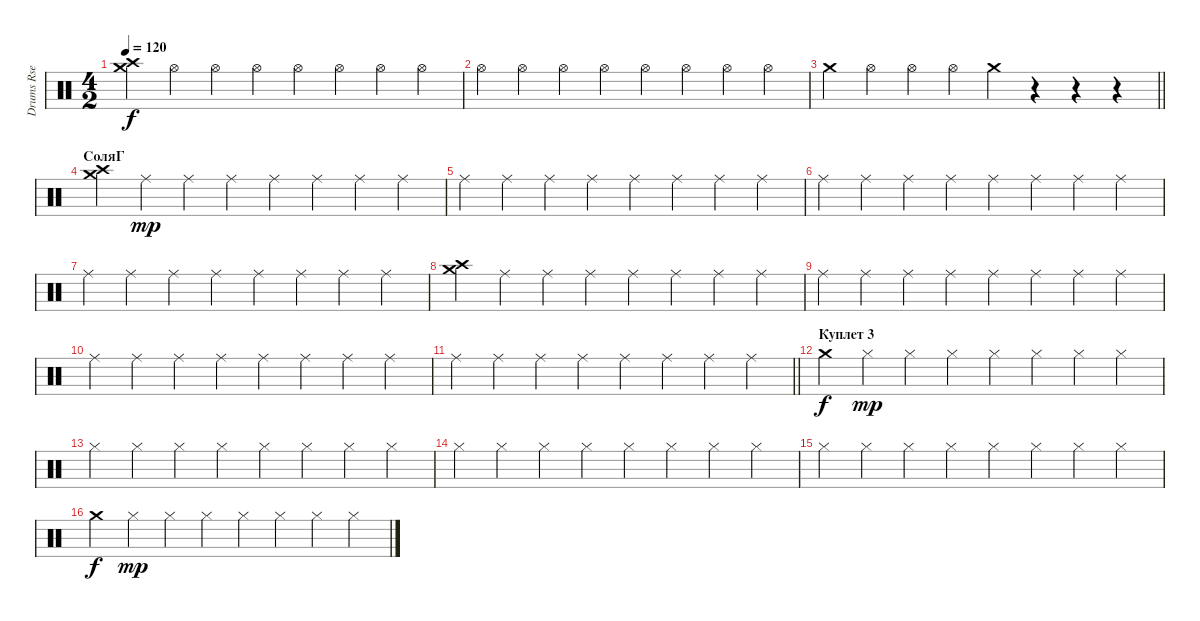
\track ("Drums Rse" "Drums Rse") {instrument percussion}
\staff {score}
\articulation defaults
\ts (4 2)
\tempo 120
\clef neutral
\ks c
("Crash medium (hit)" "Crash high (hit)").4{dy f} "Hi-Hat (open)".4 "Hi-Hat (open)".4 "Hi-Hat (open)".4 "Hi-Hat (open)".4 "Hi-Hat (open)".4 "Hi-Hat (open)".4 "Hi-Hat (open)".4 |
"Hi-Hat (open)".4 "Hi-Hat (open)".4 "Hi-Hat (open)".4 "Hi-Hat (open)".4 "Hi-Hat (open)".4 "Hi-Hat (open)".4 "Hi-Hat (open)".4 "Hi-Hat (open)".4 |
\barLineRight lightlight "Crash medium (hit)".4 "Hi-Hat (open)".4 "Hi-Hat (open)".4 "Hi-Hat (open)".4 "Crash medium (hit)".4
r.4 r.4 r.4 |
\section ("" "СоляГ")
("Crash medium (hit)" "Crash high (hit)").4 "Ride (middle)".4{dy mp} "Ride (middle)".4 "Ride (middle)".4 "Ride (middle)".4 "Ride (middle)".4 "Ride (middle)".4 "Ride (middle)".4 |
"Ride (middle)".4 "Ride (middle)".4 "Ride (middle)".4 "Ride (middle)".4 "Ride (middle)".4 "Ride (middle)".4 "Ride (middle)".4 "Ride (middle)".4 |
"Ride (middle)".4 "Ride (middle)".4 "Ride (middle)".4 "Ride (middle)".4 "Ride (middle)".4 "Ride (middle)".4 "Ride (middle)".4 "Ride (middle)".4 |
"Ride (middle)".4 "Ride (middle)".4 "Ride (middle)".4 "Ride (middle)".4 "Ride (middle)".4 "Ride (middle)".4 "Ride (middle)".4 "Ride (middle)".4 |
("Crash medium (hit)" "Crash high (hit)").4 "Ride (middle)".4 "Ride (middle)".4 "Ride (middle)".4 "Ride (middle)".4 "Ride (middle)".4 "Ride (middle)".4 "Ride (middle)".4 |
"Ride (middle)".4 "Ride (middle)".4 "Ride (middle)".4 "Ride (middle)".4 "Ride (middle)".4 "Ride (middle)".4 "Ride (middle)".4 "Ride (middle)".4 |
"Ride (middle)".4 "Ride (middle)".4 "Ride (middle)".4 "Ride (middle)".4 "Ride (middle)".4 "Ride (middle)".4 "Ride (middle)".4 "Ride (middle)".4 |
\barLineRight lightlight "Ride (middle)".4 "Ride (middle)".4 "Ride (middle)".4 "Ride (middle)".4 "Ride (middle)".4 "Ride (middle)".4 "Ride (middle)".4 "Ride (middle)".4
|
\section ("" "Куплет 3")
"Crash medium (hit)".4{dy f} "Hi-Hat (closed)".4{dy mp} "Hi-Hat (closed)".4 "Hi-Hat (closed)".4 "Hi-Hat (closed)".4 "Hi-Hat (closed)".4 "Hi-Hat (closed)".4 "Hi-Hat (closed)".4 |
"Hi-Hat (closed)".4 "Hi-Hat (closed)".4 "Hi-Hat (closed)".4 "Hi-Hat (closed)".4 "Hi-Hat (closed)".4 "Hi-Hat (closed)".4 "Hi-Hat (closed)".4 "Hi-Hat (closed)".4 |
"Hi-Hat (closed)".4 "Hi-Hat (closed)".4 "Hi-Hat (closed)".4 "Hi-Hat (closed)".4 "Hi-Hat (closed)".4 "Hi-Hat (closed)".4 "Hi-Hat (closed)".4 "Hi-Hat (closed)".4 |
"Hi-Hat (closed)".4 "Hi-Hat (closed)".4 "Hi-Hat (closed)".4 "Hi-Hat (closed)".4 "Hi-Hat (closed)".4 "Hi-Hat (closed)".4 "Hi-Hat (closed)".4 "Hi-Hat (closed)".4 |
"Crash medium (hit)".4{dy f} "Hi-Hat (closed)".4{dy mp} "Hi-Hat (closed)".4 "Hi-Hat (closed)".4 "Hi-Hat (closed)".4 "Hi-Hat (closed)".4 "Hi-Hat (closed)".4 "Hi-Hat (closed)".4
